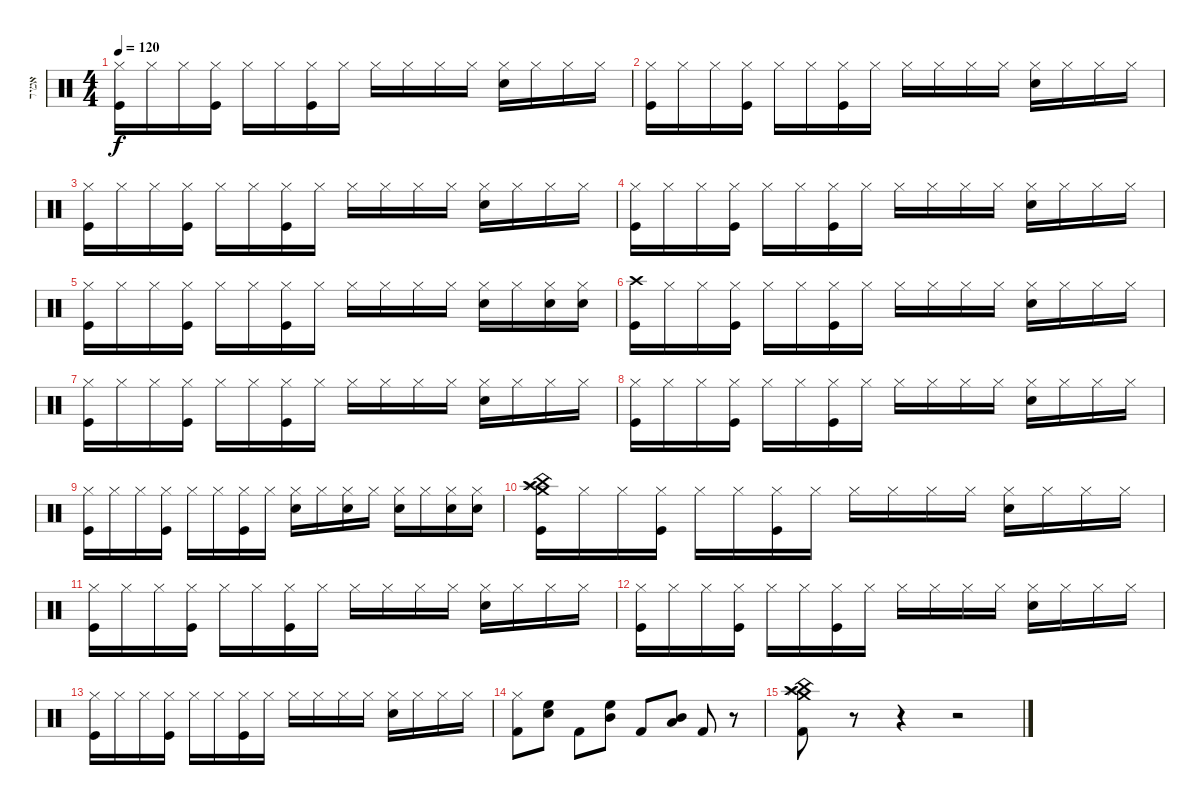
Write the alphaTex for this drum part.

\track ("אמיר" "אמיר") {instrument percussion}
\staff {score}
\articulation defaults
\ts (4 4)
\tempo 120
\clef neutral
\ks c
("Hi-Hat (closed)" "Kick (hit)").16{dy f} "Hi-Hat (closed)".16 "Hi-Hat (closed)".16 ("Hi-Hat (closed)" "Kick (hit)").16 "Hi-Hat (closed)".16 "Hi-Hat (closed)".16 ("Hi-Hat (closed)" "Kick (hit)").16 "Hi-Hat (closed)".16 "Hi-Hat (closed)".16 "Hi-Hat (closed)".16 "Hi-Hat (closed)".16 "Hi-Hat (closed)".16 ("Hi-Hat (closed)" "Snare (hit) 2").16 "Hi-Hat (closed)".16 "Hi-Hat (closed)".16 "Hi-Hat (closed)".16 |
("Hi-Hat (closed)" "Kick (hit)").16 "Hi-Hat (closed)".16 "Hi-Hat (closed)".16 ("Hi-Hat (closed)" "Kick (hit)").16 "Hi-Hat (closed)".16 "Hi-Hat (closed)".16 ("Hi-Hat (closed)" "Kick (hit)").16 "Hi-Hat (closed)".16 "Hi-Hat (closed)".16 "Hi-Hat (closed)".16 "Hi-Hat (closed)".16 "Hi-Hat (closed)".16 ("Hi-Hat (closed)" "Snare (hit) 2").16 "Hi-Hat (closed)".16 "Hi-Hat (closed)".16 "Hi-Hat (closed)".16 |
("Hi-Hat (closed)" "Kick (hit)").16 "Hi-Hat (closed)".16 "Hi-Hat (closed)".16 ("Hi-Hat (closed)" "Kick (hit)").16 "Hi-Hat (closed)".16 "Hi-Hat (closed)".16 ("Hi-Hat (closed)" "Kick (hit)").16 "Hi-Hat (closed)".16 "Hi-Hat (closed)".16 "Hi-Hat (closed)".16 "Hi-Hat (closed)".16 "Hi-Hat (closed)".16 ("Hi-Hat (closed)" "Snare (hit) 2").16 "Hi-Hat (closed)".16 "Hi-Hat (closed)".16 "Hi-Hat (closed)".16 |
("Hi-Hat (closed)" "Kick (hit)").16 "Hi-Hat (closed)".16 "Hi-Hat (closed)".16 ("Hi-Hat (closed)" "Kick (hit)").16 "Hi-Hat (closed)".16 "Hi-Hat (closed)".16 ("Hi-Hat (closed)" "Kick (hit)").16 "Hi-Hat (closed)".16 "Hi-Hat (closed)".16 "Hi-Hat (closed)".16 "Hi-Hat (closed)".16 "Hi-Hat (closed)".16 ("Hi-Hat (closed)" "Snare (hit) 2").16 "Hi-Hat (closed)".16 "Hi-Hat (closed)".16 "Hi-Hat (closed)".16 |
("Hi-Hat (closed)" "Kick (hit)").16 "Hi-Hat (closed)".16 "Hi-Hat (closed)".16 ("Hi-Hat (closed)" "Kick (hit)").16 "Hi-Hat (closed)".16 "Hi-Hat (closed)".16 ("Hi-Hat (closed)" "Kick (hit)").16 "Hi-Hat (closed)".16 "Hi-Hat (closed)".16 "Hi-Hat (closed)".16 "Hi-Hat (closed)".16 "Hi-Hat (closed)".16 ("Hi-Hat (closed)" "Snare (hit) 2").16 "Hi-Hat (closed)".16 ("Hi-Hat (closed)" "Snare (hit) 2").16 ("Hi-Hat (closed)" "Snare (hit) 2").16 |
("Crash high (hit)" "Kick (hit)").16 "Hi-Hat (closed)".16 "Hi-Hat (closed)".16 ("Hi-Hat (closed)" "Kick (hit)").16 "Hi-Hat (closed)".16 "Hi-Hat (closed)".16 ("Hi-Hat (closed)" "Kick (hit)").16 "Hi-Hat (closed)".16 "Hi-Hat (closed)".16 "Hi-Hat (closed)".16 "Hi-Hat (closed)".16 "Hi-Hat (closed)".16 ("Hi-Hat (closed)" "Snare (hit) 2").16 "Hi-Hat (closed)".16 "Hi-Hat (closed)".16 "Hi-Hat (closed)".16 |
("Hi-Hat (closed)" "Kick (hit)").16 "Hi-Hat (closed)".16 "Hi-Hat (closed)".16 ("Hi-Hat (closed)" "Kick (hit)").16 "Hi-Hat (closed)".16 "Hi-Hat (closed)".16 ("Hi-Hat (closed)" "Kick (hit)").16 "Hi-Hat (closed)".16 "Hi-Hat (closed)".16 "Hi-Hat (closed)".16 "Hi-Hat (closed)".16 "Hi-Hat (closed)".16 ("Hi-Hat (closed)" "Snare (hit) 2").16 "Hi-Hat (closed)".16 "Hi-Hat (closed)".16 "Hi-Hat (closed)".16 |
("Hi-Hat (closed)" "Kick (hit)").16 "Hi-Hat (closed)".16 "Hi-Hat (closed)".16 ("Hi-Hat (closed)" "Kick (hit)").16 "Hi-Hat (closed)".16 "Hi-Hat (closed)".16 ("Hi-Hat (closed)" "Kick (hit)").16 "Hi-Hat (closed)".16 "Hi-Hat (closed)".16 "Hi-Hat (closed)".16 "Hi-Hat (closed)".16 "Hi-Hat (closed)".16 ("Hi-Hat (closed)" "Snare (hit) 2").16 "Hi-Hat (closed)".16 "Hi-Hat (closed)".16 "Hi-Hat (closed)".16 |
("Hi-Hat (closed)" "Kick (hit)").16 "Hi-Hat (closed)".16 "Hi-Hat (closed)".16 ("Hi-Hat (closed)" "Kick (hit)").16 "Hi-Hat (closed)".16 "Hi-Hat (closed)".16 ("Hi-Hat (closed)" "Kick (hit)").16 "Hi-Hat (closed)".16 ("Hi-Hat (closed)" "Snare (hit) 2").16 "Hi-Hat (closed)".16 ("Hi-Hat (closed)" "Snare (hit) 2").16 "Hi-Hat (closed)".16 ("Hi-Hat (closed)" "Snare (hit) 2").16 "Hi-Hat (closed)".16 ("Hi-Hat (closed)" "Snare (hit) 2").16 ("Hi-Hat (closed)" "Snare (hit) 2").16 |
("China (hit)" "Splash (hit)" "Crash high (hit)" "Crash medium (hit)" "Kick (hit)").16 "Hi-Hat (closed)".16 "Hi-Hat (closed)".16 ("Hi-Hat (closed)" "Kick (hit)").16 "Hi-Hat (closed)".16 "Hi-Hat (closed)".16 ("Hi-Hat (closed)" "Kick (hit)").16 "Hi-Hat (closed)".16 "Hi-Hat (closed)".16 "Hi-Hat (closed)".16 "Hi-Hat (closed)".16 "Hi-Hat (closed)".16 ("Hi-Hat (closed)" "Snare (hit) 2").16 "Hi-Hat (closed)".16 "Hi-Hat (closed)".16 "Hi-Hat (closed)".16 |
("Hi-Hat (closed)" "Kick (hit)").16 "Hi-Hat (closed)".16 "Hi-Hat (closed)".16 ("Hi-Hat (closed)" "Kick (hit)").16 "Hi-Hat (closed)".16 "Hi-Hat (closed)".16 ("Hi-Hat (closed)" "Kick (hit)").16 "Hi-Hat (closed)".16 "Hi-Hat (closed)".16 "Hi-Hat (closed)".16 "Hi-Hat (closed)".16 "Hi-Hat (closed)".16 ("Hi-Hat (closed)" "Snare (hit) 2").16 "Hi-Hat (closed)".16 "Hi-Hat (closed)".16 "Hi-Hat (closed)".16 |
("Hi-Hat (closed)" "Kick (hit)").16 "Hi-Hat (closed)".16 "Hi-Hat (closed)".16 ("Hi-Hat (closed)" "Kick (hit)").16 "Hi-Hat (closed)".16 "Hi-Hat (closed)".16 ("Hi-Hat (closed)" "Kick (hit)").16 "Hi-Hat (closed)".16 "Hi-Hat (closed)".16 "Hi-Hat (closed)".16 "Hi-Hat (closed)".16 "Hi-Hat (closed)".16 ("Hi-Hat (closed)" "Snare (hit) 2").16 "Hi-Hat (closed)".16 "Hi-Hat (closed)".16 "Hi-Hat (closed)".16 |
("Hi-Hat (closed)" "Kick (hit)").16 "Hi-Hat (closed)".16 "Hi-Hat (closed)".16 ("Hi-Hat (closed)" "Kick (hit)").16 "Hi-Hat (closed)".16 "Hi-Hat (closed)".16 ("Hi-Hat (closed)" "Kick (hit)").16 "Hi-Hat (closed)".16 "Hi-Hat (closed)".16 "Hi-Hat (closed)".16 "Hi-Hat (closed)".16 "Hi-Hat (closed)".16 ("Hi-Hat (closed)" "Snare (hit) 2").16 "Hi-Hat (closed)".16 "Hi-Hat (closed)".16 "Hi-Hat (closed)".16 |
("Hi-Hat (closed)" "Kick (hit) 2").8 ("Snare (hit) 2" "High Floor Tom (hit)").8 "Kick (hit) 2".8 ("High Floor Tom (hit)" "Mid Tom (hit)").8 "Kick (hit) 2".8 ("Mid Tom (hit)" "Low Floor Tom (hit)").8 "Kick (hit) 2".8 r.8 |
("Crash high (hit)" "Crash medium (hit)" "China (hit)" "Splash (hit)" "Kick (hit) 2").8 r.8 r.4 r.2
